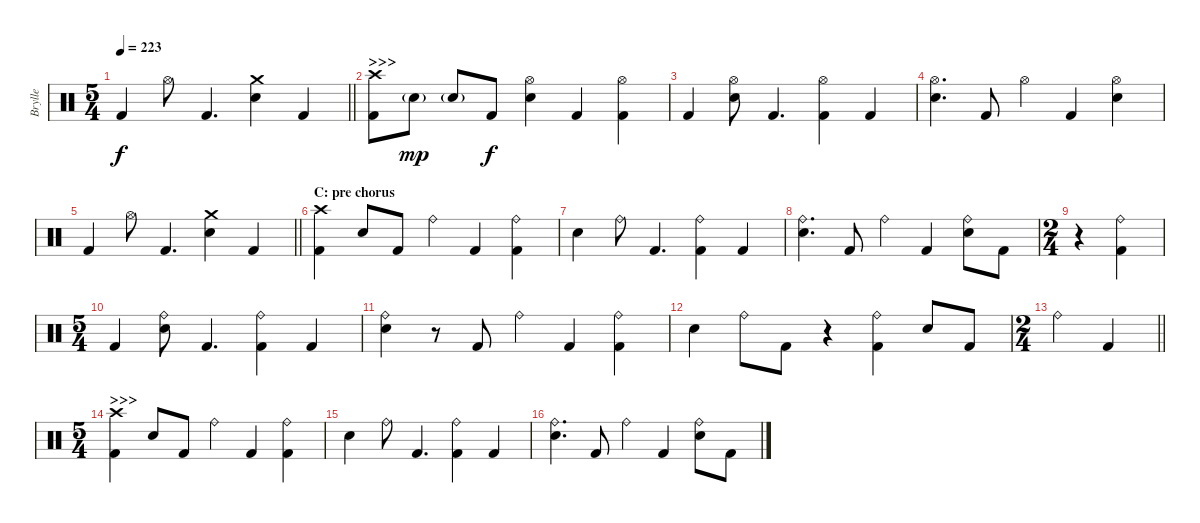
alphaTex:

\track ("Brylle" "Brylle") {instrument percussion}
\staff {score}
\articulation defaults
\ts (5 4)
\tempo 223
\clef neutral
\barLineRight lightlight
\ks c "Kick (hit) 2".4{dy f} "Hi-Hat (open)".8 "Kick (hit) 2".4{d}
("Crash medium (hit)" "Electric Snare (hit)").4 "Kick (hit) 2".4 |
\section ("" ">>>")
("Crash high (hit)" "Kick (hit) 2").8 "Electric Snare (hit)"{g}.8{dy mp} "Electric Snare (hit)"{g}.8 "Kick (hit) 2".8{dy f} ("Hi-Hat (open)" "Electric Snare (hit)").4 "Kick (hit) 2".4 ("Hi-Hat (open)" "Kick (hit) 2").4 |
"Kick (hit) 2".4 ("Hi-Hat (open)" "Electric Snare (hit)").8 "Kick (hit) 2".4{d} ("Hi-Hat (open)" "Kick (hit) 2").4 "Kick (hit) 2".4 |
("Hi-Hat (open)" "Electric Snare (hit)").4{d} "Kick (hit) 2".8 "Hi-Hat (open)".4 "Kick (hit) 2".4 ("Hi-Hat (open)" "Electric Snare (hit)").4 |
\barLineRight lightlight "Kick (hit) 2".4 "Hi-Hat (open)".8 "Kick (hit) 2".4{d}
("Crash medium (hit)" "Electric Snare (hit)").4 "Kick (hit) 2".4 |
\section ("" "C: pre chorus")
("Crash high (hit)" "Kick (hit) 2").4 "Electric Snare (hit)".8 "Kick (hit) 2".8 "Ride (bell)".4 "Kick (hit) 2".4 ("Ride (bell)" "Kick (hit) 2").4 |
"Electric Snare (hit)".4 "Ride (bell)".8 "Kick (hit) 2".4{d} ("Ride (bell)" "Kick (hit) 2").4 "Kick (hit) 2".4 |
("Ride (bell)" "Electric Snare (hit)").4{d} "Kick (hit) 2".8 "Ride (bell)".4 "Kick (hit) 2".4 ("Ride (bell)" "Electric Snare (hit)").8 "Kick (hit) 2".8 |
\ts (2 4)
r.4 ("Ride (bell)" "Kick (hit) 2").4 |
\ts (5 4)
"Kick (hit) 2".4 ("Ride (bell)" "Electric Snare (hit)").8 "Kick (hit) 2".4{d} ("Ride (bell)" "Kick (hit) 2").4 "Kick (hit) 2".4 |
("Ride (bell)" "Electric Snare (hit)").4 r.8 "Kick (hit) 2".8 "Ride (bell)".4 "Kick (hit) 2".4 ("Ride (bell)" "Kick (hit) 2").4 |
"Electric Snare (hit)".4 "Ride (bell)".8 "Kick (hit) 2".8 r.4 ("Ride (bell)" "Kick (hit) 2").4 "Electric Snare (hit)".8 "Kick (hit) 2".8 |
\ts (2 4)
\barLineRight lightlight "Ride (bell)".4 "Kick (hit) 2".4
|
\ts (5 4)
\section ("" ">>>")
("Crash high (hit)" "Kick (hit) 2").4 "Electric Snare (hit)".8 "Kick (hit) 2".8 "Ride (bell)".4 "Kick (hit) 2".4 ("Ride (bell)" "Kick (hit) 2").4 |
"Electric Snare (hit)".4 "Ride (bell)".8 "Kick (hit) 2".4{d} ("Ride (bell)" "Kick (hit) 2").4 "Kick (hit) 2".4 |
("Ride (bell)" "Electric Snare (hit)").4{d} "Kick (hit) 2".8 "Ride (bell)".4 "Kick (hit) 2".4 ("Ride (bell)" "Electric Snare (hit)").8 "Kick (hit) 2".8
